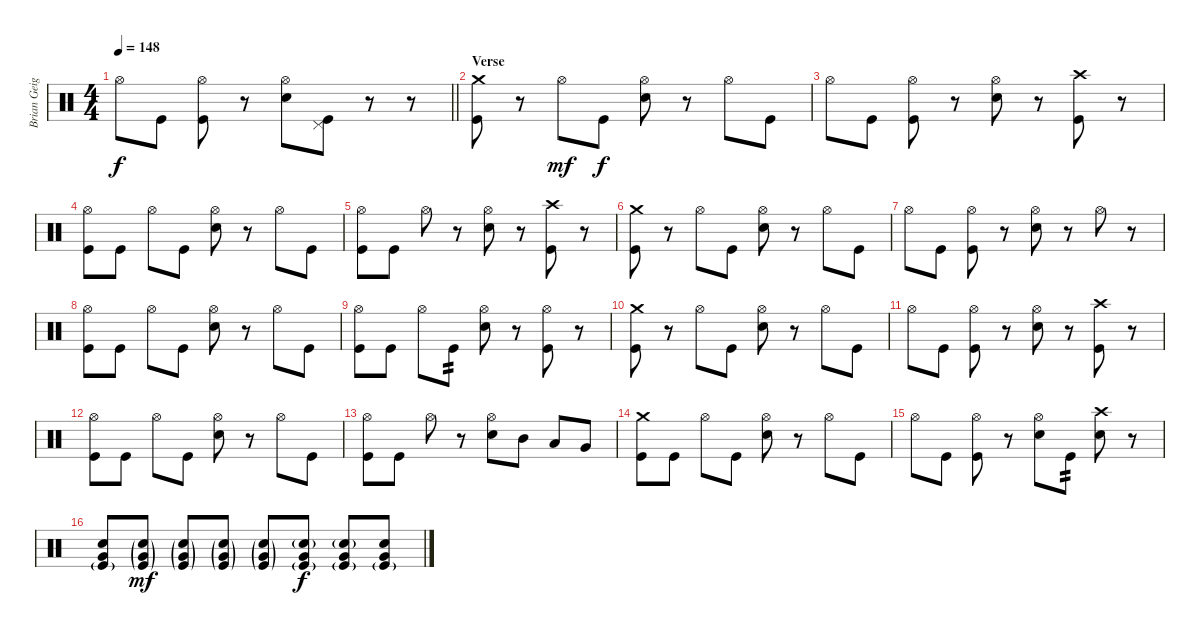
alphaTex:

\track ("Brian Geiger" "Brian Geig") {instrument percussion}
\staff {score}
\articulation defaults
\ts (4 4)
\tempo 148
\clef neutral
\barLineRight lightlight
\ks c "Hi-Hat (open)".8{dy f} "Kick (hit)".8
("Hi-Hat (open)" "Kick (hit)").8 r.8 ("Hi-Hat (open)" "Snare (hit) 2").8 ("Pedal Hi-Hat (hit)" "Kick (hit)").8 r.8 r.8 |
\section ("" "Verse")
("Crash medium (hit)" "Kick (hit)").8 r.8 "Hi-Hat (open)".8{dy mf} "Kick (hit)".8{dy f} ("Hi-Hat (open)" "Snare (hit) 2").8 r.8 "Hi-Hat (open)".8 "Kick (hit)".8 |
"Hi-Hat (open)".8 "Kick (hit)".8 ("Hi-Hat (open)" "Kick (hit)").8 r.8 ("Hi-Hat (open)" "Snare (hit) 2").8 r.8 ("Crash high (hit)" "Kick (hit)").8 r.8 |
("Hi-Hat (open)" "Kick (hit)").8 "Kick (hit)".8 "Hi-Hat (open)".8 "Kick (hit)".8 ("Hi-Hat (open)" "Snare (hit) 2").8 r.8 "Hi-Hat (open)".8 "Kick (hit)".8 |
("Hi-Hat (open)" "Kick (hit)").8 "Kick (hit)".8 "Hi-Hat (open)".8 r.8 ("Hi-Hat (open)" "Snare (hit) 2").8 r.8 ("Crash high (hit)" "Kick (hit)").8 r.8 |
("Crash medium (hit)" "Kick (hit)").8 r.8 "Hi-Hat (open)".8 "Kick (hit)".8 ("Hi-Hat (open)" "Snare (hit) 2").8 r.8 "Hi-Hat (open)".8 "Kick (hit)".8 |
"Hi-Hat (open)".8 "Kick (hit)".8 ("Hi-Hat (open)" "Kick (hit)").8 r.8 ("Hi-Hat (open)" "Snare (hit) 2").8 r.8 "Hi-Hat (open)".8 r.8 |
("Hi-Hat (open)" "Kick (hit)").8 "Kick (hit)".8 "Hi-Hat (open)".8 "Kick (hit)".8 ("Hi-Hat (open)" "Snare (hit) 2").8 r.8 "Hi-Hat (open)".8 "Kick (hit)".8 |
("Hi-Hat (open)" "Kick (hit)").8 "Kick (hit)".8 "Hi-Hat (open)".8 "Kick (hit)".8{tp 2} ("Hi-Hat (open)" "Snare (hit) 2").8 r.8 ("Hi-Hat (open)" "Kick (hit)").8 r.8 |
("Crash medium (hit)" "Kick (hit)").8 r.8 "Hi-Hat (open)".8 "Kick (hit)".8 ("Hi-Hat (open)" "Snare (hit) 2").8 r.8 "Hi-Hat (open)".8 "Kick (hit)".8 |
"Hi-Hat (open)".8 "Kick (hit)".8 ("Hi-Hat (open)" "Kick (hit)").8 r.8 ("Hi-Hat (open)" "Snare (hit) 2").8 r.8 ("Crash high (hit)" "Kick (hit)").8 r.8 |
("Hi-Hat (open)" "Kick (hit)").8 "Kick (hit)".8 "Hi-Hat (open)".8 "Kick (hit)".8 ("Hi-Hat (open)" "Snare (hit) 2").8 r.8 "Hi-Hat (open)".8 "Kick (hit)".8 |
("Hi-Hat (open)" "Kick (hit)").8 "Kick (hit)".8 "Hi-Hat (open)".8 r.8 ("Hi-Hat (open)" "Snare (hit) 2").8 "Mid Tom (hit)".8 "Low Tom (hit)".8 "Very Low Tom (hit)".8 |
("Crash medium (hit)" "Kick (hit)").8 "Kick (hit)".8 "Hi-Hat (open)".8 "Kick (hit)".8 ("Hi-Hat (open)" "Snare (hit) 2").8 r.8 "Hi-Hat (open)".8 "Kick (hit)".8 |
"Hi-Hat (open)".8 "Kick (hit)".8 ("Hi-Hat (open)" "Kick (hit)").8 r.8 ("Hi-Hat (open)" "Snare (hit) 2").8 "Kick (hit)".8{tp 2} ("Crash high (hit)" "Snare (hit) 2").8 r.8 |
("Snare (hit) 2" "Very Low Tom (hit)" "Kick (hit)"{g}).8 ("Snare (hit) 2"{g} "Very Low Tom (hit)"{g} "Kick (hit)"{g}).8{dy mf} ("Snare (hit) 2"{g} "Very Low Tom (hit)"{g} "Kick (hit)"{g}).8 ("Snare (hit) 2"{g} "Very Low Tom (hit)"{g} "Kick (hit)"{g}).8 ("Snare (hit) 2"{g} "Very Low Tom (hit)"{g} "Kick (hit)"{g}).8 ("Snare (hit) 2"{g} "Very Low Tom (hit)" "Kick (hit)"{g}).8{dy f} ("Snare (hit) 2"{g} "Very Low Tom (hit)" "Kick (hit)"{g}).8 ("Snare (hit) 2" "Very Low Tom (hit)" "Kick (hit)"{g}).8
